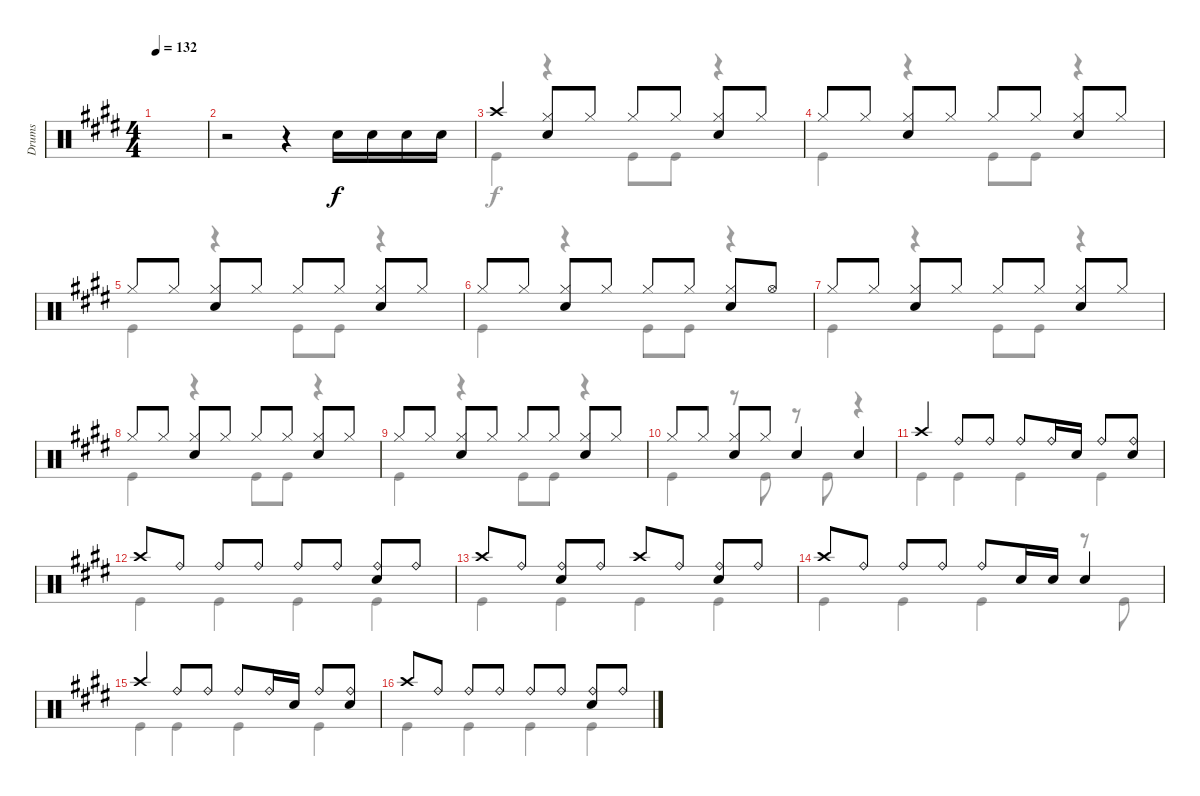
\track ("Drums" "Drums") {instrument percussion}
\staff {score}
\articulation defaults
\voice
\ts (4 4)
\tempo 132
\clef neutral
\ks e
|
r.2 r.4 "Snare (hit) 2".16 "Snare (hit) 2".16 "Snare (hit) 2".16 "Snare (hit) 2".16 |
"Crash high (hit)".4 ("Hi-Hat (closed)" "Snare (hit) 2").8 "Hi-Hat (closed)".8 "Hi-Hat (closed)".8 "Hi-Hat (closed)".8 ("Hi-Hat (closed)" "Snare (hit) 2").8 "Hi-Hat (closed)".8 |
"Hi-Hat (closed)".8 "Hi-Hat (closed)".8 ("Hi-Hat (closed)" "Snare (hit) 2").8 "Hi-Hat (closed)".8 "Hi-Hat (closed)".8 "Hi-Hat (closed)".8 ("Hi-Hat (closed)" "Snare (hit) 2").8 "Hi-Hat (closed)".8 |
"Hi-Hat (closed)".8 "Hi-Hat (closed)".8 ("Hi-Hat (closed)" "Snare (hit) 2").8 "Hi-Hat (closed)".8 "Hi-Hat (closed)".8 "Hi-Hat (closed)".8 ("Hi-Hat (closed)" "Snare (hit) 2").8 "Hi-Hat (closed)".8 |
"Hi-Hat (closed)".8 "Hi-Hat (closed)".8 ("Hi-Hat (closed)" "Snare (hit) 2").8 "Hi-Hat (closed)".8 "Hi-Hat (closed)".8 "Hi-Hat (closed)".8 ("Hi-Hat (closed)" "Snare (hit) 2").8 "Hi-Hat (open)".8 |
"Hi-Hat (closed)".8 "Hi-Hat (closed)".8 ("Hi-Hat (closed)" "Snare (hit) 2").8 "Hi-Hat (closed)".8 "Hi-Hat (closed)".8 "Hi-Hat (closed)".8 ("Hi-Hat (closed)" "Snare (hit) 2").8 "Hi-Hat (closed)".8 |
"Hi-Hat (closed)".8 "Hi-Hat (closed)".8 ("Hi-Hat (closed)" "Snare (hit) 2").8 "Hi-Hat (closed)".8 "Hi-Hat (closed)".8 "Hi-Hat (closed)".8 ("Hi-Hat (closed)" "Snare (hit) 2").8 "Hi-Hat (closed)".8 |
"Hi-Hat (closed)".8 "Hi-Hat (closed)".8 ("Hi-Hat (closed)" "Snare (hit) 2").8 "Hi-Hat (closed)".8 "Hi-Hat (closed)".8 "Hi-Hat (closed)".8 ("Hi-Hat (closed)" "Snare (hit) 2").8 "Hi-Hat (closed)".8 |
"Hi-Hat (closed)".8 "Hi-Hat (closed)".8 ("Hi-Hat (closed)" "Snare (hit) 2").8 "Hi-Hat (closed)".8 "Snare (hit) 2".4 "Snare (hit) 2".4 |
"Crash high (hit)".4 "Ride (bell)".8 "Ride (bell)".8 "Ride (bell)".8 "Ride (bell)".16 "Snare (hit) 2".16 "Ride (bell)".8 ("Ride (bell)" "Snare (hit) 2").8 |
"Crash high (hit)".8 "Ride (bell)".8 "Ride (bell)".8 "Ride (bell)".8 "Ride (bell)".8 "Ride (bell)".8 ("Ride (bell)" "Snare (hit) 2").8 "Ride (bell)".8 |
"Crash high (hit)".8 "Ride (bell)".8 ("Ride (bell)" "Snare (hit) 2").8 "Ride (bell)".8 "Crash high (hit)".8 "Ride (bell)".8 ("Ride (bell)" "Snare (hit) 2").8 "Ride (bell)".8 |
"Crash high (hit)".8 "Ride (bell)".8 "Ride (bell)".8 "Ride (bell)".8 "Ride (bell)".8 "Snare (hit) 2".16 "Snare (hit) 2".16 "Snare (hit) 2".4 |
"Crash high (hit)".4 "Ride (bell)".8 "Ride (bell)".8 "Ride (bell)".8 "Ride (bell)".16 "Snare (hit) 2".16 "Ride (bell)".8 ("Ride (bell)" "Snare (hit) 2").8 |
"Crash high (hit)".8 "Ride (bell)".8 "Ride (bell)".8 "Ride (bell)".8 "Ride (bell)".8 "Ride (bell)".8 ("Ride (bell)" "Snare (hit) 2").8 "Ride (bell)".8
\voice
\clef neutral
\ottava regular
\simile none
\ks e
|
|
"Kick (hit)".4 r.4 "Kick (hit)".8 "Kick (hit)".8 r.4 |
"Kick (hit)".4 r.4 "Kick (hit)".8 "Kick (hit)".8 r.4 |
"Kick (hit)".4 r.4 "Kick (hit)".8 "Kick (hit)".8 r.4 |
"Kick (hit)".4 r.4 "Kick (hit)".8 "Kick (hit)".8 r.4 |
"Kick (hit)".4 r.4 "Kick (hit)".8 "Kick (hit)".8 r.4 |
"Kick (hit)".4 r.4 "Kick (hit)".8 "Kick (hit)".8 r.4 |
"Kick (hit)".4 r.4 "Kick (hit)".8 "Kick (hit)".8 r.4 |
"Kick (hit)".4 r.8 "Kick (hit)".8 r.8 "Kick (hit)".8 r.4 |
"Kick (hit)".4 "Kick (hit)".4 "Kick (hit)".4 "Kick (hit)".4 |
"Kick (hit)".4 "Kick (hit)".4 "Kick (hit)".4 "Kick (hit)".4 |
"Kick (hit)".4 "Kick (hit)".4 "Kick (hit)".4 "Kick (hit)".4 |
"Kick (hit)".4 "Kick (hit)".4 "Kick (hit)".4 r.8 "Kick (hit)".8 |
"Kick (hit)".4 "Kick (hit)".4 "Kick (hit)".4 "Kick (hit)".4 |
"Kick (hit)".4 "Kick (hit)".4 "Kick (hit)".4 "Kick (hit)".4
